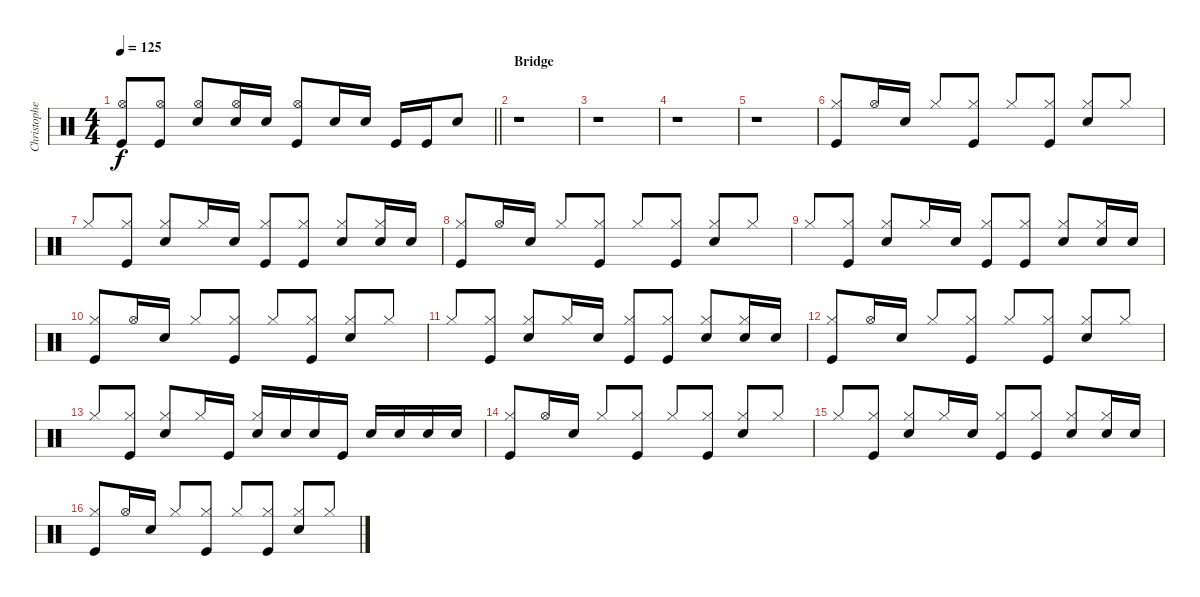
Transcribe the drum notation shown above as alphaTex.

\track ("Christopher - Drums" "Christophe") {instrument percussion}
\staff {score}
\articulation defaults
\ts (4 4)
\tempo 125
\clef neutral
\barLineRight lightlight
\ks c
("Hi-Hat (open)" "Kick (hit)").8{dy f beam Up} ("Hi-Hat (open)" "Kick (hit)").8{beam Up} ("Hi-Hat (open)" "Electric Snare (hit)").8{beam Up} ("Hi-Hat (open)" "Electric Snare (hit)").16{beam Up} "Electric Snare (hit)".16{beam Up} ("Hi-Hat (open)" "Kick (hit)").8{beam Up} "Electric Snare (hit)".16{beam Up} "Electric Snare (hit)".16{beam Up} "Kick (hit)".16 "Kick (hit)".16 "Electric Snare (hit)".8 |
\section ("" "Bridge")
r.1 |
r.1 |
r.1 |
r.1 |
("Hi-Hat (closed)" "Kick (hit)").8{volume 14 beam Up} "Hi-Hat (open)".16{beam Up} "Electric Snare (hit)".16{beam Up} "Hi-Hat (closed)".8{beam Up} ("Hi-Hat (closed)" "Kick (hit)").8{beam Up} "Hi-Hat (closed)".8{beam Up} ("Hi-Hat (closed)" "Kick (hit)").8{beam Up} ("Hi-Hat (closed)" "Electric Snare (hit)").8{beam Up} "Hi-Hat (closed)".8{beam Up} |
"Hi-Hat (closed)".8{beam Up} ("Hi-Hat (closed)" "Kick (hit)").8{beam Up} ("Hi-Hat (closed)" "Electric Snare (hit)").8{beam Up} "Hi-Hat (closed)".16{beam Up} "Electric Snare (hit)".16{beam Up} ("Hi-Hat (closed)" "Kick (hit)").8{beam Up} ("Hi-Hat (closed)" "Kick (hit)").8{beam Up} ("Hi-Hat (closed)" "Electric Snare (hit)").8{beam Up} ("Hi-Hat (closed)" "Electric Snare (hit)").16{beam Up} "Electric Snare (hit)".16{beam Up} |
("Hi-Hat (closed)" "Kick (hit)").8{beam Up} "Hi-Hat (open)".16{beam Up} "Electric Snare (hit)".16{beam Up} "Hi-Hat (closed)".8{beam Up} ("Hi-Hat (closed)" "Kick (hit)").8{beam Up} "Hi-Hat (closed)".8{beam Up} ("Hi-Hat (closed)" "Kick (hit)").8{beam Up} ("Hi-Hat (closed)" "Electric Snare (hit)").8{beam Up} "Hi-Hat (closed)".8{beam Up} |
"Hi-Hat (closed)".8{beam Up} ("Hi-Hat (closed)" "Kick (hit)").8{beam Up} ("Hi-Hat (closed)" "Electric Snare (hit)").8{beam Up} "Hi-Hat (closed)".16{beam Up} "Electric Snare (hit)".16{beam Up} ("Hi-Hat (closed)" "Kick (hit)").8{beam Up} ("Hi-Hat (closed)" "Kick (hit)").8{beam Up} ("Hi-Hat (closed)" "Electric Snare (hit)").8{beam Up} ("Hi-Hat (closed)" "Electric Snare (hit)").16{beam Up} "Electric Snare (hit)".16{beam Up} |
("Hi-Hat (closed)" "Kick (hit)").8{beam Up} "Hi-Hat (open)".16{beam Up} "Electric Snare (hit)".16{beam Up} "Hi-Hat (closed)".8{beam Up} ("Hi-Hat (closed)" "Kick (hit)").8{beam Up} "Hi-Hat (closed)".8{beam Up} ("Hi-Hat (closed)" "Kick (hit)").8{beam Up} ("Hi-Hat (closed)" "Electric Snare (hit)").8{beam Up} "Hi-Hat (closed)".8{beam Up} |
"Hi-Hat (closed)".8{beam Up} ("Hi-Hat (closed)" "Kick (hit)").8{beam Up} ("Hi-Hat (closed)" "Electric Snare (hit)").8{beam Up} "Hi-Hat (closed)".16{beam Up} "Electric Snare (hit)".16{beam Up} ("Hi-Hat (closed)" "Kick (hit)").8{beam Up} ("Hi-Hat (closed)" "Kick (hit)").8{beam Up} ("Hi-Hat (closed)" "Electric Snare (hit)").8{beam Up} ("Hi-Hat (closed)" "Electric Snare (hit)").16{beam Up} "Electric Snare (hit)".16{beam Up} |
("Hi-Hat (closed)" "Kick (hit)").8{beam Up} "Hi-Hat (open)".16{beam Up} "Electric Snare (hit)".16{beam Up} "Hi-Hat (closed)".8{beam Up} ("Hi-Hat (closed)" "Kick (hit)").8{beam Up} "Hi-Hat (closed)".8{beam Up} ("Hi-Hat (closed)" "Kick (hit)").8{beam Up} ("Hi-Hat (closed)" "Electric Snare (hit)").8{beam Up} "Hi-Hat (closed)".8{beam Up} |
"Hi-Hat (closed)".8{beam Up} ("Hi-Hat (closed)" "Kick (hit)").8{beam Up} ("Hi-Hat (closed)" "Electric Snare (hit)").8{beam Up} "Hi-Hat (closed)".16{beam Up} "Kick (hit)".16{beam Up} ("Hi-Hat (closed)" "Electric Snare (hit)").16{beam Up} "Electric Snare (hit)".16{beam Up} "Electric Snare (hit)".16{beam Up} "Kick (hit)".16{beam Up} "Electric Snare (hit)".16{beam Up} "Electric Snare (hit)".16{beam Up} "Electric Snare (hit)".16{beam Up} "Electric Snare (hit)".16{beam Up} |
("Hi-Hat (closed)" "Kick (hit)").8{beam Up} "Hi-Hat (open)".16{beam Up} "Electric Snare (hit)".16{beam Up} "Hi-Hat (closed)".8{beam Up} ("Hi-Hat (closed)" "Kick (hit)").8{beam Up} "Hi-Hat (closed)".8{beam Up} ("Hi-Hat (closed)" "Kick (hit)").8{beam Up} ("Hi-Hat (closed)" "Electric Snare (hit)").8{beam Up} "Hi-Hat (closed)".8{beam Up} |
"Hi-Hat (closed)".8{beam Up} ("Hi-Hat (closed)" "Kick (hit)").8{beam Up} ("Hi-Hat (closed)" "Electric Snare (hit)").8{beam Up} "Hi-Hat (closed)".16{beam Up} "Electric Snare (hit)".16{beam Up} ("Hi-Hat (closed)" "Kick (hit)").8{beam Up} ("Hi-Hat (closed)" "Kick (hit)").8{beam Up} ("Hi-Hat (closed)" "Electric Snare (hit)").8{beam Up} ("Hi-Hat (closed)" "Electric Snare (hit)").16{beam Up} "Electric Snare (hit)".16{beam Up} |
("Hi-Hat (closed)" "Kick (hit)").8{beam Up} "Hi-Hat (open)".16{beam Up} "Electric Snare (hit)".16{beam Up} "Hi-Hat (closed)".8{beam Up} ("Hi-Hat (closed)" "Kick (hit)").8{beam Up} "Hi-Hat (closed)".8{beam Up} ("Hi-Hat (closed)" "Kick (hit)").8{beam Up} ("Hi-Hat (closed)" "Electric Snare (hit)").8{beam Up} "Hi-Hat (closed)".8{beam Up}
